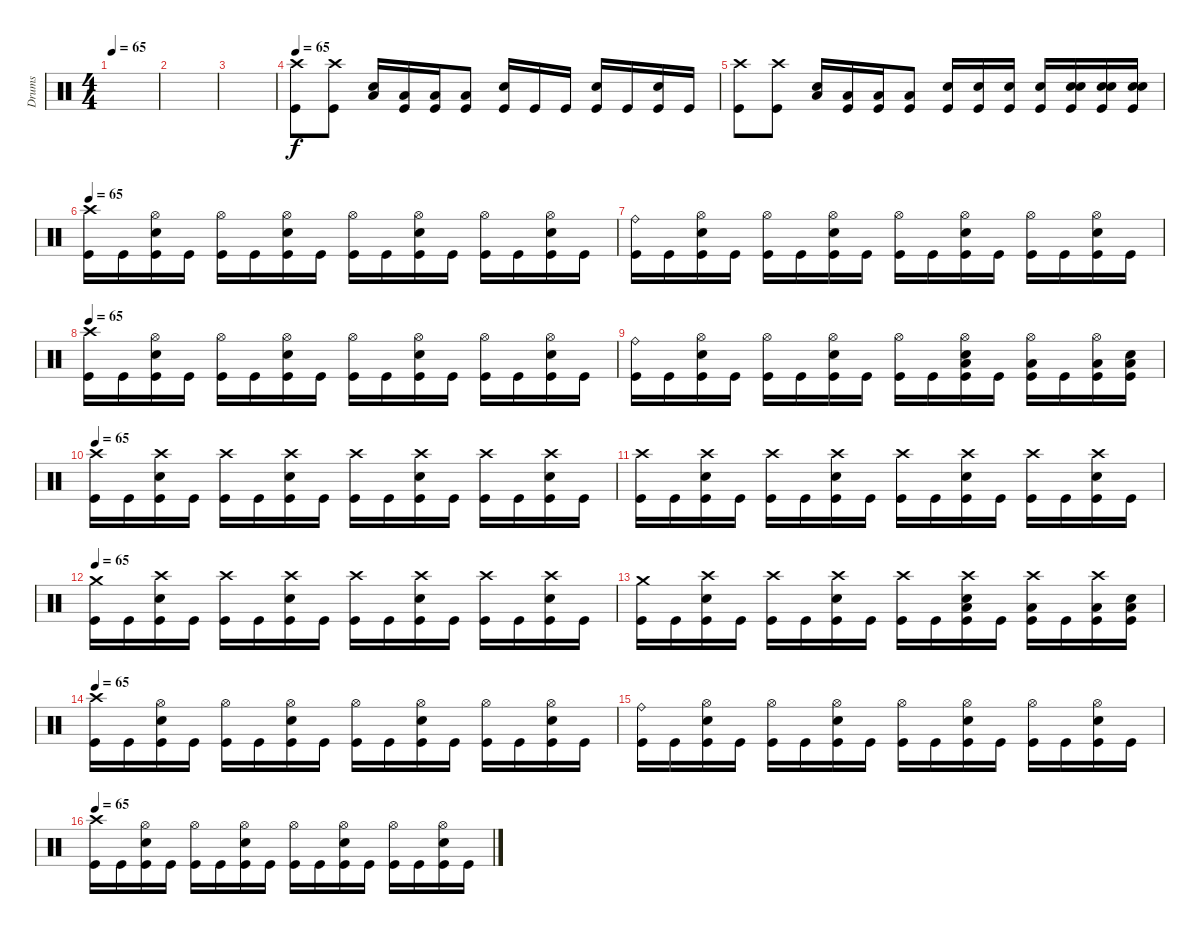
\track ("Drums" "Drums") {instrument percussion}
\staff {score}
\articulation defaults
\ts (4 4)
\tempo 65
\clef neutral
\ks c
|
|
|
\tempo 65
("Crash high (hit)" "Kick (hit)").8 ("Crash high (hit)" "Kick (hit)").8 ("Low Tom (hit)" "Electric Snare (hit)").16 ("Low Tom (hit)" "Kick (hit)").16 ("Low Tom (hit)" "Kick (hit)").16 ("Low Tom (hit)" "Kick (hit)").8 ("Electric Snare (hit)" "Kick (hit)").16 "Kick (hit)".16 "Kick (hit)".16 ("Electric Snare (hit)" "Kick (hit)").16 "Kick (hit)".16 ("Electric Snare (hit)" "Kick (hit)").16 "Kick (hit)".16 |
("Crash high (hit)" "Kick (hit)").8 ("Crash high (hit)" "Kick (hit)").8 ("Low Tom (hit)" "Electric Snare (hit)").16 ("Low Tom (hit)" "Kick (hit)").16 ("Low Tom (hit)" "Kick (hit)").16 ("Low Tom (hit)" "Kick (hit)").8 ("Electric Snare (hit)" "Kick (hit)").16 ("Electric Snare (hit)" "Kick (hit)").16 ("Electric Snare (hit)" "Kick (hit)").16 ("Electric Snare (hit)" "Kick (hit)").16 ("Electric Snare (hit)" "Electric Snare (hit)" "Kick (hit)").16 ("Electric Snare (hit)" "Electric Snare (hit)" "Kick (hit)").16 ("Electric Snare (hit)" "Electric Snare (hit)" "Kick (hit)").16 |
\tempo 65
("Crash high (hit)" "Kick (hit)").16 "Kick (hit)".16 ("Hi-Hat (open)" "Electric Snare (hit)" "Kick (hit)").16 "Kick (hit)".16 ("Hi-Hat (open)" "Kick (hit)").16 "Kick (hit)".16 ("Hi-Hat (open)" "Electric Snare (hit)" "Kick (hit)").16 "Kick (hit)".16 ("Hi-Hat (open)" "Kick (hit)").16 "Kick (hit)".16 ("Hi-Hat (open)" "Electric Snare (hit)" "Kick (hit)").16 "Kick (hit)".16 ("Hi-Hat (open)" "Kick (hit)").16 "Kick (hit)".16 ("Hi-Hat (open)" "Electric Snare (hit)" "Kick (hit)").16 "Kick (hit)".16 |
("Ride (bell)" "Kick (hit)").16 "Kick (hit)".16 ("Hi-Hat (open)" "Electric Snare (hit)" "Kick (hit)").16 "Kick (hit)".16 ("Hi-Hat (open)" "Kick (hit)").16 "Kick (hit)".16 ("Hi-Hat (open)" "Electric Snare (hit)" "Kick (hit)").16 "Kick (hit)".16 ("Hi-Hat (open)" "Kick (hit)").16 "Kick (hit)".16 ("Hi-Hat (open)" "Electric Snare (hit)" "Kick (hit)").16 "Kick (hit)".16 ("Hi-Hat (open)" "Kick (hit)").16 "Kick (hit)".16 ("Hi-Hat (open)" "Electric Snare (hit)" "Kick (hit)").16 "Kick (hit)".16 |
\tempo 65
("Crash high (hit)" "Kick (hit)").16 "Kick (hit)".16 ("Hi-Hat (open)" "Electric Snare (hit)" "Kick (hit)").16 "Kick (hit)".16 ("Hi-Hat (open)" "Kick (hit)").16 "Kick (hit)".16 ("Hi-Hat (open)" "Electric Snare (hit)" "Kick (hit)").16 "Kick (hit)".16 ("Hi-Hat (open)" "Kick (hit)").16 "Kick (hit)".16 ("Hi-Hat (open)" "Electric Snare (hit)" "Kick (hit)").16 "Kick (hit)".16 ("Hi-Hat (open)" "Kick (hit)").16 "Kick (hit)".16 ("Hi-Hat (open)" "Electric Snare (hit)" "Kick (hit)").16 "Kick (hit)".16 |
("Ride (bell)" "Kick (hit)").16 "Kick (hit)".16 ("Hi-Hat (open)" "Electric Snare (hit)" "Kick (hit)").16 "Kick (hit)".16 ("Hi-Hat (open)" "Kick (hit)").16 "Kick (hit)".16 ("Hi-Hat (open)" "Electric Snare (hit)" "Kick (hit)").16 "Kick (hit)".16 ("Hi-Hat (open)" "Kick (hit)").16 "Kick (hit)".16 ("Hi-Hat (open)" "Low Tom (hit)" "Electric Snare (hit)" "Kick (hit)").16 "Kick (hit)".16 ("Hi-Hat (open)" "Low Tom (hit)" "Kick (hit)").16 "Kick (hit)".16 ("Hi-Hat (open)" "Low Tom (hit)" "Kick (hit)").16 ("Low Tom (hit)" "Electric Snare (hit)" "Kick (hit)").16 |
\tempo 65
("Crash high (hit)" "Kick (hit)").16 "Kick (hit)".16 ("Crash high (hit)" "Electric Snare (hit)" "Kick (hit)").16 "Kick (hit)".16 ("Crash high (hit)" "Kick (hit)").16 "Kick (hit)".16 ("Crash high (hit)" "Electric Snare (hit)" "Kick (hit)").16 "Kick (hit)".16 ("Crash high (hit)" "Kick (hit)").16 "Kick (hit)".16 ("Crash high (hit)" "Electric Snare (hit)" "Kick (hit)").16 "Kick (hit)".16 ("Crash high (hit)" "Kick (hit)").16 "Kick (hit)".16 ("Crash high (hit)" "Electric Snare (hit)" "Kick (hit)").16 "Kick (hit)".16 |
("Crash high (hit)" "Kick (hit)").16 "Kick (hit)".16 ("Crash high (hit)" "Electric Snare (hit)" "Kick (hit)").16 "Kick (hit)".16 ("Crash high (hit)" "Kick (hit)").16 "Kick (hit)".16 ("Crash high (hit)" "Electric Snare (hit)" "Kick (hit)").16 "Kick (hit)".16 ("Crash high (hit)" "Kick (hit)").16 "Kick (hit)".16 ("Crash high (hit)" "Electric Snare (hit)" "Kick (hit)").16 "Kick (hit)".16 ("Crash high (hit)" "Kick (hit)").16 "Kick (hit)".16 ("Crash high (hit)" "Electric Snare (hit)" "Kick (hit)").16 "Kick (hit)".16 |
\tempo 65
("Crash medium (hit)" "Kick (hit)").16 "Kick (hit)".16 ("Crash high (hit)" "Electric Snare (hit)" "Kick (hit)").16 "Kick (hit)".16 ("Crash high (hit)" "Kick (hit)").16 "Kick (hit)".16 ("Crash high (hit)" "Electric Snare (hit)" "Kick (hit)").16 "Kick (hit)".16 ("Crash high (hit)" "Kick (hit)").16 "Kick (hit)".16 ("Crash high (hit)" "Electric Snare (hit)" "Kick (hit)").16 "Kick (hit)".16 ("Crash high (hit)" "Kick (hit)").16 "Kick (hit)".16 ("Crash high (hit)" "Electric Snare (hit)" "Kick (hit)").16 "Kick (hit)".16 |
("Crash medium (hit)" "Kick (hit)").16 "Kick (hit)".16 ("Crash high (hit)" "Electric Snare (hit)" "Kick (hit)").16 "Kick (hit)".16 ("Crash high (hit)" "Kick (hit)").16 "Kick (hit)".16 ("Crash high (hit)" "Electric Snare (hit)" "Kick (hit)").16 "Kick (hit)".16 ("Crash high (hit)" "Kick (hit)").16 "Kick (hit)".16 ("Crash high (hit)" "Low Tom (hit)" "Electric Snare (hit)" "Kick (hit)").16 "Kick (hit)".16 ("Crash high (hit)" "Low Tom (hit)" "Kick (hit)").16 "Kick (hit)".16 ("Crash high (hit)" "Low Tom (hit)" "Kick (hit)").16 ("Low Tom (hit)" "Electric Snare (hit)" "Kick (hit)").16 |
\tempo 65
("Crash high (hit)" "Kick (hit)").16 "Kick (hit)".16 ("Hi-Hat (open)" "Electric Snare (hit)" "Kick (hit)").16 "Kick (hit)".16 ("Hi-Hat (open)" "Kick (hit)").16 "Kick (hit)".16 ("Hi-Hat (open)" "Electric Snare (hit)" "Kick (hit)").16 "Kick (hit)".16 ("Hi-Hat (open)" "Kick (hit)").16 "Kick (hit)".16 ("Hi-Hat (open)" "Electric Snare (hit)" "Kick (hit)").16 "Kick (hit)".16 ("Hi-Hat (open)" "Kick (hit)").16 "Kick (hit)".16 ("Hi-Hat (open)" "Electric Snare (hit)" "Kick (hit)").16 "Kick (hit)".16 |
("Ride (bell)" "Kick (hit)").16 "Kick (hit)".16 ("Hi-Hat (open)" "Electric Snare (hit)" "Kick (hit)").16 "Kick (hit)".16 ("Hi-Hat (open)" "Kick (hit)").16 "Kick (hit)".16 ("Hi-Hat (open)" "Electric Snare (hit)" "Kick (hit)").16 "Kick (hit)".16 ("Hi-Hat (open)" "Kick (hit)").16 "Kick (hit)".16 ("Hi-Hat (open)" "Electric Snare (hit)" "Kick (hit)").16 "Kick (hit)".16 ("Hi-Hat (open)" "Kick (hit)").16 "Kick (hit)".16 ("Hi-Hat (open)" "Electric Snare (hit)" "Kick (hit)").16 "Kick (hit)".16 |
\tempo 65
("Crash high (hit)" "Kick (hit)").16 "Kick (hit)".16 ("Hi-Hat (open)" "Electric Snare (hit)" "Kick (hit)").16 "Kick (hit)".16 ("Hi-Hat (open)" "Kick (hit)").16 "Kick (hit)".16 ("Hi-Hat (open)" "Electric Snare (hit)" "Kick (hit)").16 "Kick (hit)".16 ("Hi-Hat (open)" "Kick (hit)").16 "Kick (hit)".16 ("Hi-Hat (open)" "Electric Snare (hit)" "Kick (hit)").16 "Kick (hit)".16 ("Hi-Hat (open)" "Kick (hit)").16 "Kick (hit)".16 ("Hi-Hat (open)" "Electric Snare (hit)" "Kick (hit)").16 "Kick (hit)".16
